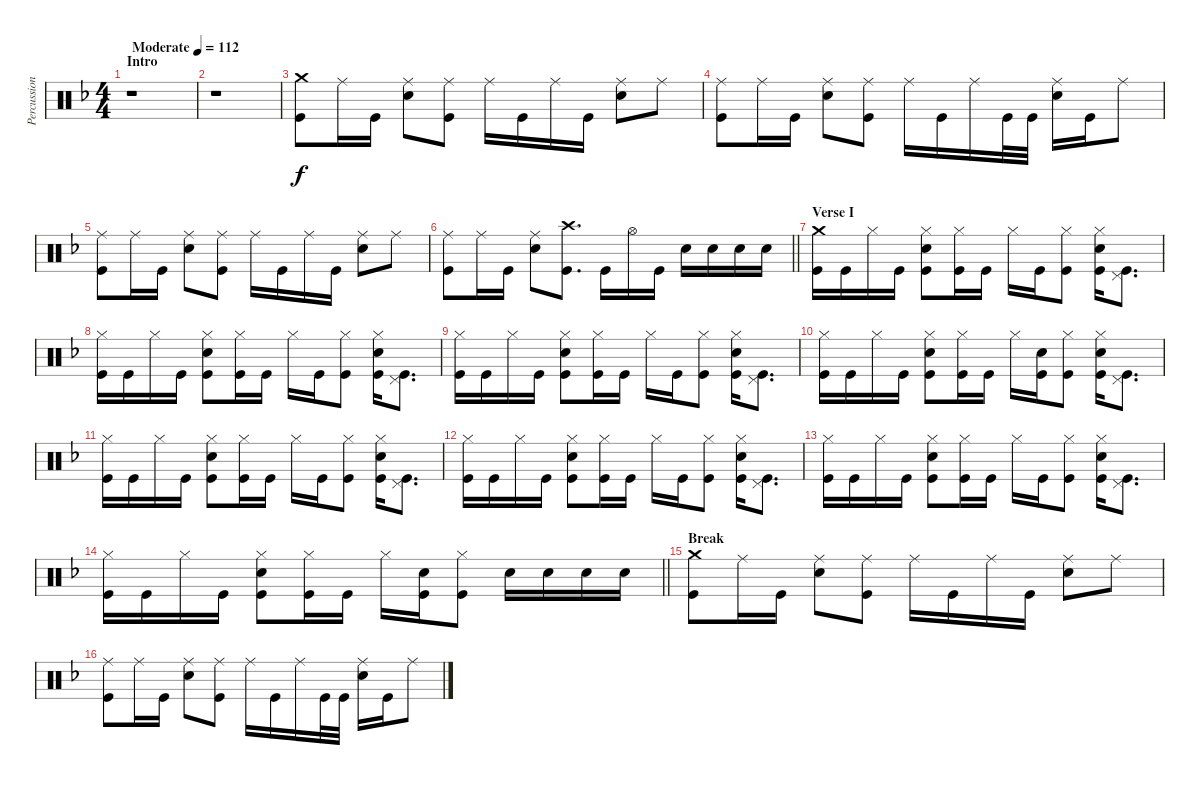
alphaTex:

\track ("Percussion" "Percussion") {instrument percussion}
\staff {score}
\articulation defaults
\ts (4 4)
\section ("" "Intro")
\tempo (112 "Moderate")
\clef neutral
\ks f
r.1{dy f} |
r.1 |
("Crash medium (hit)" "Kick (hit)").8 "Ride (middle)".16 "Kick (hit)".16 ("Ride (middle)" "Electric Snare (hit)").8 ("Ride (middle)" "Kick (hit)").8 "Ride (middle)".16 "Kick (hit)".16 "Ride (middle)".16 "Kick (hit)".16 ("Ride (middle)" "Electric Snare (hit)").8 "Ride (middle)".8 |
("Ride (middle)" "Kick (hit)").8 "Ride (middle)".16 "Kick (hit)".16 ("Ride (middle)" "Electric Snare (hit)").8 ("Ride (middle)" "Kick (hit)").8 "Ride (middle)".16 "Kick (hit)".16 "Ride (middle)".16 "Kick (hit)".32 "Kick (hit)".32 ("Ride (middle)" "Electric Snare (hit)").16 "Kick (hit)".16 "Ride (middle)".8 |
("Ride (middle)" "Kick (hit)").8 "Ride (middle)".16 "Kick (hit)".16 ("Ride (middle)" "Electric Snare (hit)").8 ("Ride (middle)" "Kick (hit)").8 "Ride (middle)".16 "Kick (hit)".16 "Ride (middle)".16 "Kick (hit)".16 ("Ride (middle)" "Electric Snare (hit)").8 "Ride (middle)".8 |
\barLineRight lightlight
("Ride (middle)" "Kick (hit)").8 "Ride (middle)".16 "Kick (hit)".16 ("Ride (middle)" "Electric Snare (hit)").8 ("Crash high (hit)" "Kick (hit)").8{d} "Kick (hit)".16 "Hi-Hat (open)".16 "Kick (hit)".16 "Electric Snare (hit)".16 "Electric Snare (hit)".16 "Electric Snare (hit)".16 "Electric Snare (hit)".16 |
\section ("" "Verse I")
("Crash medium (hit)" "Kick (hit)").16 "Kick (hit)".16 "Hi-Hat (closed)".16 "Kick (hit)".16 ("Hi-Hat (closed)" "Electric Snare (hit)" "Kick (hit)").8 ("Hi-Hat (closed)" "Kick (hit)").16 "Kick (hit)".16 "Hi-Hat (closed)".16 "Kick (hit)".16 ("Hi-Hat (closed)" "Kick (hit)").8 ("Hi-Hat (closed)" "Electric Snare (hit)" "Kick (hit)").16 ("Pedal Hi-Hat (hit)" "Kick (hit)").8{d} |
("Hi-Hat (closed)" "Kick (hit)").16 "Kick (hit)".16 "Hi-Hat (closed)".16 "Kick (hit)".16 ("Hi-Hat (closed)" "Electric Snare (hit)" "Kick (hit)").8 ("Hi-Hat (closed)" "Kick (hit)").16 "Kick (hit)".16 "Hi-Hat (closed)".16 "Kick (hit)".16 ("Hi-Hat (closed)" "Kick (hit)").8 ("Hi-Hat (closed)" "Electric Snare (hit)" "Kick (hit)").16 ("Pedal Hi-Hat (hit)" "Kick (hit)").8{d} |
("Hi-Hat (closed)" "Kick (hit)").16 "Kick (hit)".16 "Hi-Hat (closed)".16 "Kick (hit)".16 ("Hi-Hat (closed)" "Electric Snare (hit)" "Kick (hit)").8 ("Hi-Hat (closed)" "Kick (hit)").16 "Kick (hit)".16 "Hi-Hat (closed)".16 "Kick (hit)".16 ("Hi-Hat (closed)" "Kick (hit)").8 ("Hi-Hat (closed)" "Electric Snare (hit)" "Kick (hit)").16 ("Pedal Hi-Hat (hit)" "Kick (hit)").8{d} |
("Hi-Hat (closed)" "Kick (hit)").16 "Kick (hit)".16 "Hi-Hat (closed)".16 "Kick (hit)".16 ("Hi-Hat (closed)" "Electric Snare (hit)" "Kick (hit)").8 ("Hi-Hat (closed)" "Kick (hit)").16 "Kick (hit)".16 "Hi-Hat (closed)".16 ("Electric Snare (hit)" "Kick (hit)").16 ("Hi-Hat (closed)" "Kick (hit)").8 ("Hi-Hat (closed)" "Electric Snare (hit)" "Kick (hit)").16 ("Pedal Hi-Hat (hit)" "Kick (hit)").8{d} |
("Hi-Hat (closed)" "Kick (hit)").16 "Kick (hit)".16 "Hi-Hat (closed)".16 "Kick (hit)".16 ("Hi-Hat (closed)" "Electric Snare (hit)" "Kick (hit)").8 ("Hi-Hat (closed)" "Kick (hit)").16 "Kick (hit)".16 "Hi-Hat (closed)".16 "Kick (hit)".16 ("Hi-Hat (closed)" "Kick (hit)").8 ("Hi-Hat (closed)" "Electric Snare (hit)" "Kick (hit)").16 ("Pedal Hi-Hat (hit)" "Kick (hit)").8{d} |
("Hi-Hat (closed)" "Kick (hit)").16 "Kick (hit)".16 "Hi-Hat (closed)".16 "Kick (hit)".16 ("Hi-Hat (closed)" "Electric Snare (hit)" "Kick (hit)").8 ("Hi-Hat (closed)" "Kick (hit)").16 "Kick (hit)".16 "Hi-Hat (closed)".16 "Kick (hit)".16 ("Hi-Hat (closed)" "Kick (hit)").8 ("Hi-Hat (closed)" "Electric Snare (hit)" "Kick (hit)").16 ("Pedal Hi-Hat (hit)" "Kick (hit)").8{d} |
("Hi-Hat (closed)" "Kick (hit)").16 "Kick (hit)".16 "Hi-Hat (closed)".16 "Kick (hit)".16 ("Hi-Hat (closed)" "Electric Snare (hit)" "Kick (hit)").8 ("Hi-Hat (closed)" "Kick (hit)").16 "Kick (hit)".16 "Hi-Hat (closed)".16 "Kick (hit)".16 ("Hi-Hat (closed)" "Kick (hit)").8 ("Hi-Hat (closed)" "Electric Snare (hit)" "Kick (hit)").16 ("Pedal Hi-Hat (hit)" "Kick (hit)").8{d} |
\barLineRight lightlight
("Hi-Hat (closed)" "Kick (hit)").16 "Kick (hit)".16 "Hi-Hat (closed)".16 "Kick (hit)".16 ("Hi-Hat (closed)" "Electric Snare (hit)" "Kick (hit)").8 ("Hi-Hat (closed)" "Kick (hit)").16 "Kick (hit)".16 "Hi-Hat (closed)".16 ("Electric Snare (hit)" "Kick (hit)").16 ("Hi-Hat (closed)" "Kick (hit)").8 "Electric Snare (hit)".16 "Electric Snare (hit)".16 "Electric Snare (hit)".16 "Electric Snare (hit)".16 |
\section ("" "Break")
("Crash medium (hit)" "Kick (hit)").8 "Ride (middle)".16 "Kick (hit)".16 ("Ride (middle)" "Electric Snare (hit)").8 ("Ride (middle)" "Kick (hit)").8 "Ride (middle)".16 "Kick (hit)".16 "Ride (middle)".16 "Kick (hit)".16 ("Ride (middle)" "Electric Snare (hit)").8 "Ride (middle)".8 |
("Ride (middle)" "Kick (hit)").8 "Ride (middle)".16 "Kick (hit)".16 ("Ride (middle)" "Electric Snare (hit)").8 ("Ride (middle)" "Kick (hit)").8 "Ride (middle)".16 "Kick (hit)".16 "Ride (middle)".16 "Kick (hit)".32 "Kick (hit)".32 ("Ride (middle)" "Electric Snare (hit)").16 "Kick (hit)".16 "Ride (middle)".8
